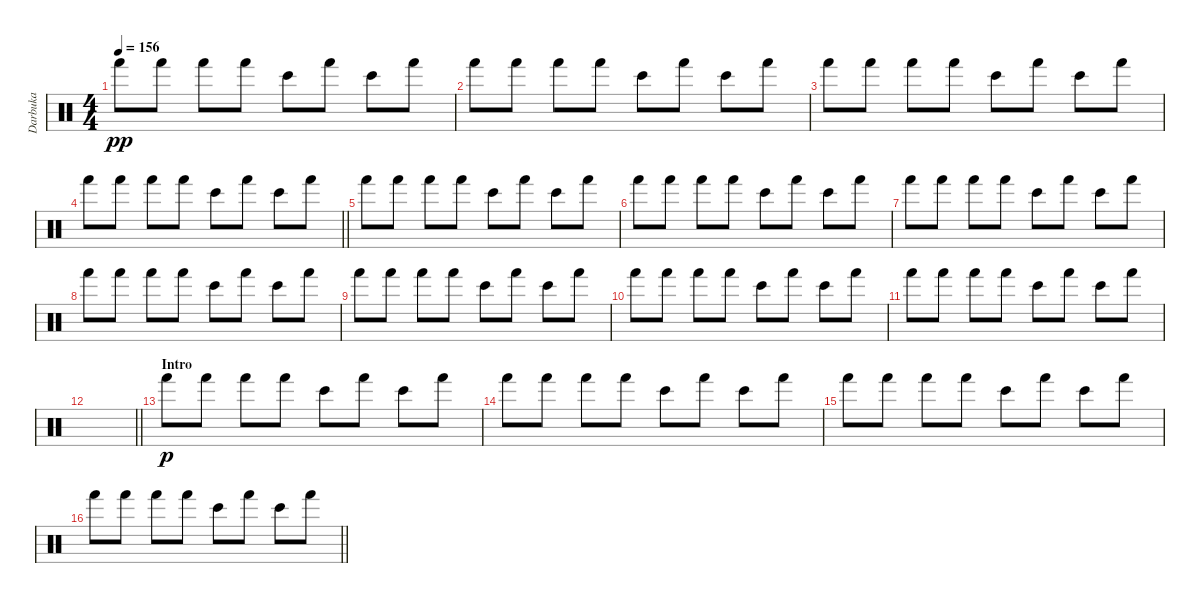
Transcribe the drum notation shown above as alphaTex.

\track ("Darbuka" "Darbuka") {instrument percussion}
\staff {score}
\articulation defaults
\ts (4 4)
\tempo 156
\clef neutral
\ks c "Hand (hit)".8{dy pp} "Hand (hit)".8 "Hand (hit)".8 "Hand (hit)".8 "Bongo High (hit)".8 "Hand (hit)".8 "Bongo High (hit)".8 "Hand (hit)".8
|
"Hand (hit)".8 "Hand (hit)".8 "Hand (hit)".8 "Hand (hit)".8 "Bongo High (hit)".8 "Hand (hit)".8 "Bongo High (hit)".8 "Hand (hit)".8 |
"Hand (hit)".8 "Hand (hit)".8 "Hand (hit)".8 "Hand (hit)".8 "Bongo High (hit)".8 "Hand (hit)".8 "Bongo High (hit)".8 "Hand (hit)".8 |
\barLineRight lightlight "Hand (hit)".8 "Hand (hit)".8 "Hand (hit)".8 "Hand (hit)".8 "Bongo High (hit)".8 "Hand (hit)".8 "Bongo High (hit)".8 "Hand (hit)".8
|
"Hand (hit)".8 "Hand (hit)".8 "Hand (hit)".8 "Hand (hit)".8 "Bongo High (hit)".8 "Hand (hit)".8 "Bongo High (hit)".8 "Hand (hit)".8 |
"Hand (hit)".8 "Hand (hit)".8 "Hand (hit)".8 "Hand (hit)".8 "Bongo High (hit)".8 "Hand (hit)".8 "Bongo High (hit)".8 "Hand (hit)".8 |
"Hand (hit)".8 "Hand (hit)".8 "Hand (hit)".8 "Hand (hit)".8 "Bongo High (hit)".8 "Hand (hit)".8 "Bongo High (hit)".8 "Hand (hit)".8 |
"Hand (hit)".8 "Hand (hit)".8 "Hand (hit)".8 "Hand (hit)".8 "Bongo High (hit)".8 "Hand (hit)".8 "Bongo High (hit)".8 "Hand (hit)".8 |
"Hand (hit)".8 "Hand (hit)".8 "Hand (hit)".8 "Hand (hit)".8 "Bongo High (hit)".8 "Hand (hit)".8 "Bongo High (hit)".8 "Hand (hit)".8 |
"Hand (hit)".8 "Hand (hit)".8 "Hand (hit)".8 "Hand (hit)".8 "Bongo High (hit)".8 "Hand (hit)".8 "Bongo High (hit)".8 "Hand (hit)".8 |
"Hand (hit)".8 "Hand (hit)".8 "Hand (hit)".8 "Hand (hit)".8 "Bongo High (hit)".8 "Hand (hit)".8 "Bongo High (hit)".8 "Hand (hit)".8 |
\barLineRight lightlight
|
\section ("" "Intro")
"Hand (hit)".8{dy p} "Hand (hit)".8 "Hand (hit)".8 "Hand (hit)".8 "Bongo High (hit)".8 "Hand (hit)".8 "Bongo High (hit)".8 "Hand (hit)".8 |
"Hand (hit)".8 "Hand (hit)".8 "Hand (hit)".8 "Hand (hit)".8 "Bongo High (hit)".8 "Hand (hit)".8 "Bongo High (hit)".8 "Hand (hit)".8 |
"Hand (hit)".8 "Hand (hit)".8 "Hand (hit)".8 "Hand (hit)".8 "Bongo High (hit)".8 "Hand (hit)".8 "Bongo High (hit)".8 "Hand (hit)".8 |
\barLineRight lightlight "Hand (hit)".8 "Hand (hit)".8 "Hand (hit)".8 "Hand (hit)".8 "Bongo High (hit)".8 "Hand (hit)".8 "Bongo High (hit)".8 "Hand (hit)".8
